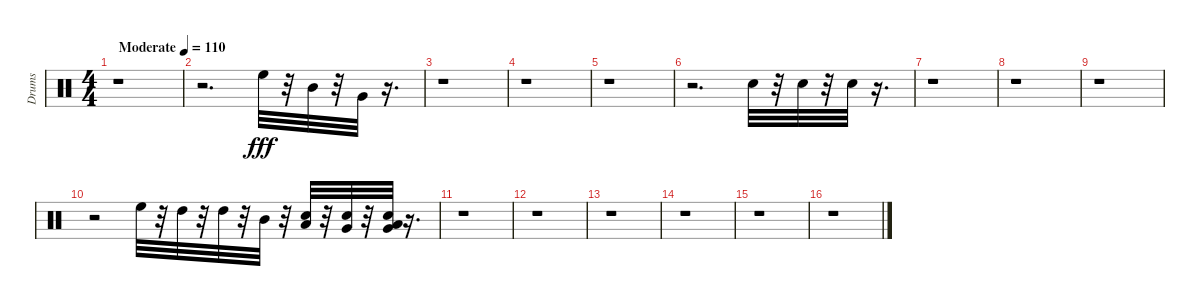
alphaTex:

\track ("Drums" "Drums") {instrument percussion}
\staff {score}
\articulation defaults
\ts (4 4)
\tempo (110 "Moderate")
\clef neutral
\ks c
r.1{dy fff} |
r.2{d} "High Floor Tom (hit)".32 r.32 "Mid Tom (hit)".32 r.32 "Very Low Tom (hit)".32 r.16{d} |
r.1 |
r.1 |
r.1 |
r.2{d} "Electric Snare (hit)".32 r.32 "Electric Snare (hit)".32 r.32 "Electric Snare (hit)".32 r.16{d} |
r.1 |
r.1 |
r.1 |
r.2 "High Floor Tom (hit)".32 r.32 "High Tom (hit)".32 r.32 "High Tom (hit)".32 r.32 "Mid Tom (hit)".32 r.32 ("Low Tom (hit)" "Electric Snare (hit)").32 r.32 ("Very Low Tom (hit)" "Electric Snare (hit)").32 r.32 ("Very Low Tom (hit)" "Low Floor Tom (hit)" "Electric Snare (hit)").32 r.16{d} |
r.1 |
r.1 |
r.1 |
r.1 |
r.1 |
r.1
